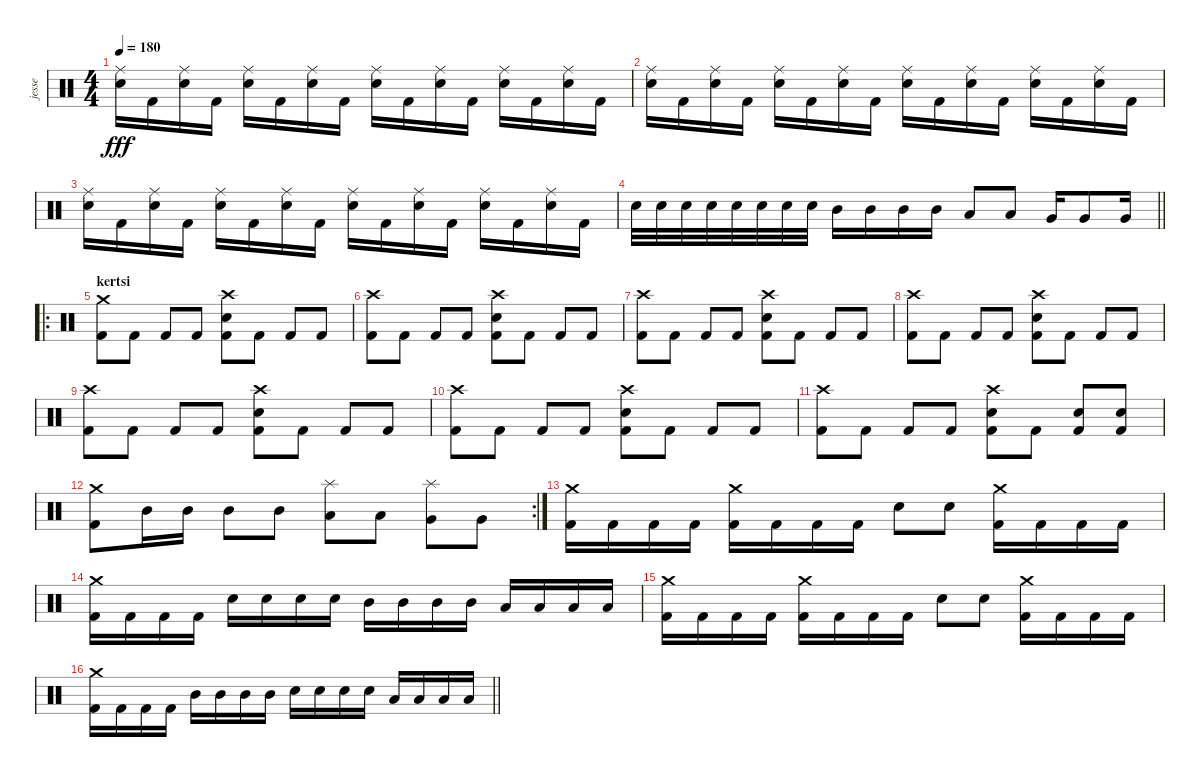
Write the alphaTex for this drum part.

\track ("jesse" "jesse") {instrument percussion}
\staff {score}
\articulation defaults
\ts (4 4)
\tempo 180
\clef neutral
\ks c
("Ride (middle)" "Snare (hit) 2").16{dy fff} "Kick (hit) 2".16 ("Ride (middle)" "Snare (hit) 2").16 "Kick (hit) 2".16 ("Ride (middle)" "Snare (hit) 2").16 "Kick (hit) 2".16 ("Ride (middle)" "Snare (hit) 2").16 "Kick (hit) 2".16 ("Ride (middle)" "Snare (hit) 2").16 "Kick (hit) 2".16 ("Ride (middle)" "Snare (hit) 2").16 "Kick (hit) 2".16 ("Ride (middle)" "Snare (hit) 2").16 "Kick (hit) 2".16 ("Ride (middle)" "Snare (hit) 2").16 "Kick (hit) 2".16 |
("Ride (middle)" "Snare (hit) 2").16 "Kick (hit) 2".16 ("Ride (middle)" "Snare (hit) 2").16 "Kick (hit) 2".16 ("Ride (middle)" "Snare (hit) 2").16 "Kick (hit) 2".16 ("Ride (middle)" "Snare (hit) 2").16 "Kick (hit) 2".16 ("Ride (middle)" "Snare (hit) 2").16 "Kick (hit) 2".16 ("Ride (middle)" "Snare (hit) 2").16 "Kick (hit) 2".16 ("Ride (middle)" "Snare (hit) 2").16 "Kick (hit) 2".16 ("Ride (middle)" "Snare (hit) 2").16 "Kick (hit) 2".16 |
("Ride (middle)" "Snare (hit) 2").16 "Kick (hit) 2".16 ("Ride (middle)" "Snare (hit) 2").16 "Kick (hit) 2".16 ("Ride (middle)" "Snare (hit) 2").16 "Kick (hit) 2".16 ("Ride (middle)" "Snare (hit) 2").16 "Kick (hit) 2".16 ("Ride (middle)" "Snare (hit) 2").16 "Kick (hit) 2".16 ("Ride (middle)" "Snare (hit) 2").16 "Kick (hit) 2".16 ("Ride (middle)" "Snare (hit) 2").16 "Kick (hit) 2".16 ("Ride (middle)" "Snare (hit) 2").16 "Kick (hit) 2".16 |
\barLineRight lightlight "Electric Snare (hit)".32 "Electric Snare (hit)".32 "Electric Snare (hit)".32 "Electric Snare (hit)".32 "Electric Snare (hit)".32 "Electric Snare (hit)".32 "Electric Snare (hit)".32 "Electric Snare (hit)".32 "Mid Tom (hit)".16 "Mid Tom (hit)".16 "Mid Tom (hit)".16 "Mid Tom (hit)".16 "Low Tom (hit)".8 "Low Tom (hit)".8 "Very Low Tom (hit)".16 "Very Low Tom (hit)".8 "Very Low Tom (hit)".16
|
\ro
\section ("" "kertsi")
("Crash medium (hit)" "Kick (hit) 2").8 "Kick (hit) 2".8 "Kick (hit) 2".8 "Kick (hit) 2".8 ("Crash high (hit)" "Snare (hit) 2" "Kick (hit) 2").8 "Kick (hit) 2".8 "Kick (hit) 2".8 "Kick (hit) 2".8 |
("Crash high (hit)" "Kick (hit) 2").8 "Kick (hit) 2".8 "Kick (hit) 2".8 "Kick (hit) 2".8 ("Crash high (hit)" "Snare (hit) 2" "Kick (hit) 2").8 "Kick (hit) 2".8 "Kick (hit) 2".8 "Kick (hit) 2".8 |
("Crash high (hit)" "Kick (hit) 2").8 "Kick (hit) 2".8 "Kick (hit) 2".8 "Kick (hit) 2".8 ("Crash high (hit)" "Snare (hit) 2" "Kick (hit) 2").8 "Kick (hit) 2".8 "Kick (hit) 2".8 "Kick (hit) 2".8 |
("Crash high (hit)" "Kick (hit) 2").8 "Kick (hit) 2".8 "Kick (hit) 2".8 "Kick (hit) 2".8 ("Crash high (hit)" "Snare (hit) 2" "Kick (hit) 2").8 "Kick (hit) 2".8 "Kick (hit) 2".8 "Kick (hit) 2".8 |
("Crash high (hit)" "Kick (hit) 2").8 "Kick (hit) 2".8 "Kick (hit) 2".8 "Kick (hit) 2".8 ("Crash high (hit)" "Snare (hit) 2" "Kick (hit) 2").8 "Kick (hit) 2".8 "Kick (hit) 2".8 "Kick (hit) 2".8 |
("Crash high (hit)" "Kick (hit) 2").8 "Kick (hit) 2".8 "Kick (hit) 2".8 "Kick (hit) 2".8 ("Crash high (hit)" "Snare (hit) 2" "Kick (hit) 2").8 "Kick (hit) 2".8 "Kick (hit) 2".8 "Kick (hit) 2".8 |
("Crash high (hit)" "Kick (hit) 2").8 "Kick (hit) 2".8 "Kick (hit) 2".8 "Kick (hit) 2".8 ("Crash high (hit)" "Snare (hit) 2" "Kick (hit) 2").8 "Kick (hit) 2".8 ("Snare (hit) 2" "Kick (hit) 2").8 ("Snare (hit) 2" "Kick (hit) 2").8 |
\rc 2
("Crash medium (hit)" "Kick (hit) 2").8 "Mid Tom (hit)".16 "Mid Tom (hit)".16 "Mid Tom (hit)".8 "Mid Tom (hit)".8 ("Splash (hit)" "Low Tom (hit)").8 "Low Tom (hit)".8 ("Splash (hit)" "Very Low Tom (hit)").8 "Very Low Tom (hit)".8 |
("Crash medium (hit)" "Kick (hit) 2").16 "Kick (hit) 2".16 "Kick (hit) 2".16 "Kick (hit) 2".16 ("Crash medium (hit)" "Kick (hit) 2").16 "Kick (hit) 2".16 "Kick (hit) 2".16 "Kick (hit) 2".16 "Snare (hit) 2".8 "Snare (hit) 2".8 ("Crash medium (hit)" "Kick (hit) 2").16 "Kick (hit) 2".16 "Kick (hit) 2".16 "Kick (hit) 2".16 |
("Crash medium (hit)" "Kick (hit) 2").16 "Kick (hit) 2".16 "Kick (hit) 2".16 "Kick (hit) 2".16 "Snare (hit) 2".16 "Snare (hit) 2".16 "Snare (hit) 2".16 "Snare (hit) 2".16 "Mid Tom (hit)".16 "Mid Tom (hit)".16 "Mid Tom (hit)".16 "Mid Tom (hit)".16 "Low Tom (hit)".16 "Low Tom (hit)".16 "Low Tom (hit)".16 "Low Tom (hit)".16 |
("Crash medium (hit)" "Kick (hit) 2").16 "Kick (hit) 2".16 "Kick (hit) 2".16 "Kick (hit) 2".16 ("Crash medium (hit)" "Kick (hit) 2").16 "Kick (hit) 2".16 "Kick (hit) 2".16 "Kick (hit) 2".16 "Snare (hit) 2".8 "Snare (hit) 2".8 ("Crash medium (hit)" "Kick (hit) 2").16 "Kick (hit) 2".16 "Kick (hit) 2".16 "Kick (hit) 2".16 |
\barLineRight lightlight
("Crash medium (hit)" "Kick (hit) 2").16 "Kick (hit) 2".16 "Kick (hit) 2".16 "Kick (hit) 2".16 "Mid Tom (hit)".16 "Mid Tom (hit)".16 "Mid Tom (hit)".16 "Mid Tom (hit)".16 "Snare (hit) 2".16 "Snare (hit) 2".16 "Snare (hit) 2".16 "Snare (hit) 2".16 "Low Tom (hit)".16 "Low Tom (hit)".16 "Low Tom (hit)".16 "Low Tom (hit)".16
